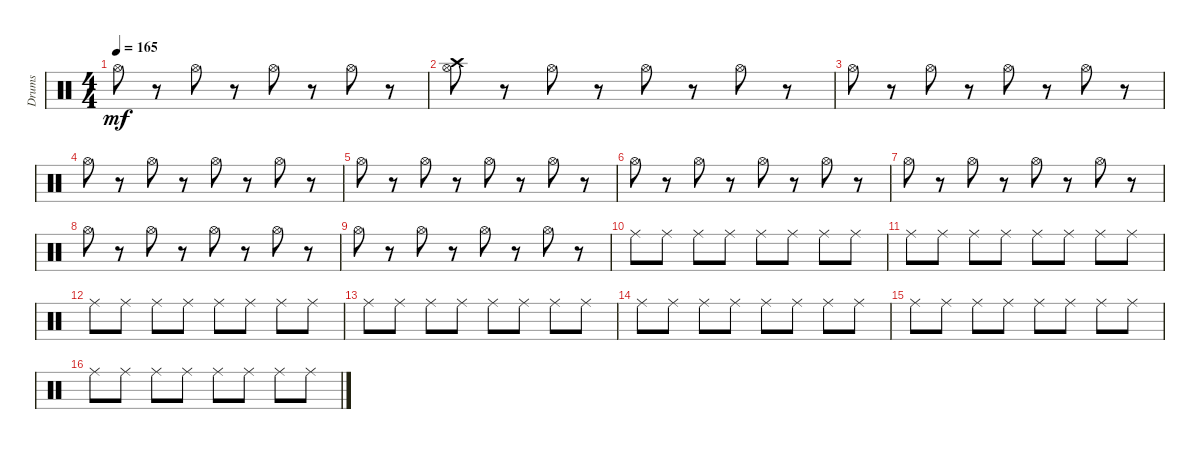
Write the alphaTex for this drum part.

\track ("Drums" "Drums") {instrument percussion}
\staff {score}
\articulation defaults
\ts (4 4)
\tempo 165
\clef neutral
\ks c "Hi-Hat (open)".8{dy mf}
r.8 "Hi-Hat (open)".8 r.8 "Hi-Hat (open)".8 r.8 "Hi-Hat (open)".8 r.8 |
("Hi-Hat (open)" "Crash high (hit)").8 r.8 "Hi-Hat (open)".8 r.8 "Hi-Hat (open)".8 r.8 "Hi-Hat (open)".8 r.8 |
"Hi-Hat (open)".8 r.8 "Hi-Hat (open)".8 r.8 "Hi-Hat (open)".8 r.8 "Hi-Hat (open)".8 r.8 |
"Hi-Hat (open)".8 r.8 "Hi-Hat (open)".8 r.8 "Hi-Hat (open)".8 r.8 "Hi-Hat (open)".8 r.8 |
"Hi-Hat (open)".8 r.8 "Hi-Hat (open)".8 r.8 "Hi-Hat (open)".8 r.8 "Hi-Hat (open)".8 r.8 |
"Hi-Hat (open)".8 r.8 "Hi-Hat (open)".8 r.8 "Hi-Hat (open)".8 r.8 "Hi-Hat (open)".8 r.8 |
"Hi-Hat (open)".8 r.8 "Hi-Hat (open)".8 r.8 "Hi-Hat (open)".8 r.8 "Hi-Hat (open)".8 r.8 |
"Hi-Hat (open)".8 r.8 "Hi-Hat (open)".8 r.8 "Hi-Hat (open)".8 r.8 "Hi-Hat (open)".8 r.8 |
"Hi-Hat (open)".8 r.8 "Hi-Hat (open)".8 r.8 "Hi-Hat (open)".8 r.8 "Hi-Hat (open)".8 r.8 |
"Ride (middle)".8 "Ride (middle)".8 "Ride (middle)".8 "Ride (middle)".8 "Ride (middle)".8 "Ride (middle)".8 "Ride (middle)".8 "Ride (middle)".8 |
"Ride (middle)".8 "Ride (middle)".8 "Ride (middle)".8 "Ride (middle)".8 "Ride (middle)".8 "Ride (middle)".8 "Ride (middle)".8 "Ride (middle)".8 |
"Ride (middle)".8 "Ride (middle)".8 "Ride (middle)".8 "Ride (middle)".8 "Ride (middle)".8 "Ride (middle)".8 "Ride (middle)".8 "Ride (middle)".8 |
"Ride (middle)".8 "Ride (middle)".8 "Ride (middle)".8 "Ride (middle)".8 "Ride (middle)".8 "Ride (middle)".8 "Ride (middle)".8 "Ride (middle)".8 |
"Ride (middle)".8 "Ride (middle)".8 "Ride (middle)".8 "Ride (middle)".8 "Ride (middle)".8 "Ride (middle)".8 "Ride (middle)".8 "Ride (middle)".8 |
"Ride (middle)".8 "Ride (middle)".8 "Ride (middle)".8 "Ride (middle)".8 "Ride (middle)".8 "Ride (middle)".8 "Ride (middle)".8 "Ride (middle)".8 |
"Ride (middle)".8 "Ride (middle)".8 "Ride (middle)".8 "Ride (middle)".8 "Ride (middle)".8 "Ride (middle)".8 "Ride (middle)".8 "Ride (middle)".8
